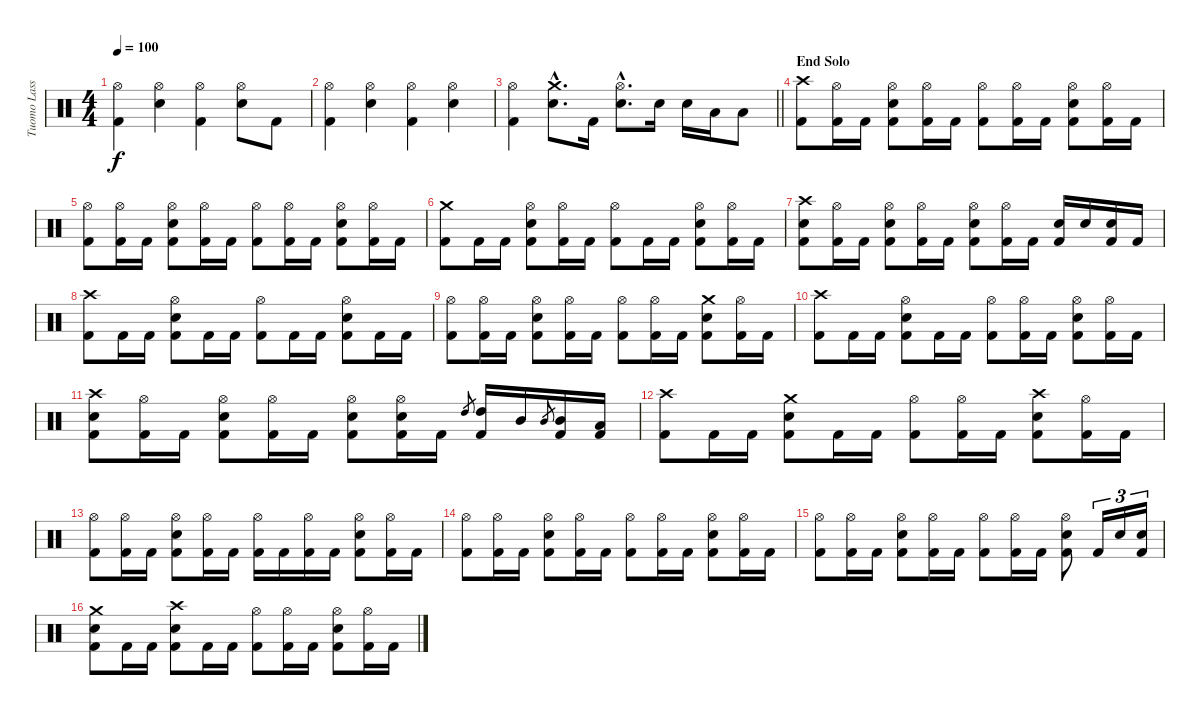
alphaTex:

\track ("Tuomo Lassila" "Tuomo Lass") {instrument percussion}
\staff {score}
\articulation defaults
\ts (4 4)
\tempo 100
\clef neutral
\ks c
("Hi-Hat (open)" "Kick (hit) 2").4{dy f} ("Hi-Hat (open)" "Electric Snare (hit)").4 ("Hi-Hat (open)" "Kick (hit) 2").4 ("Hi-Hat (open)" "Electric Snare (hit)").8 "Kick (hit) 2".8 |
("Hi-Hat (open)" "Kick (hit) 2").4 ("Hi-Hat (open)" "Electric Snare (hit)").4 ("Hi-Hat (open)" "Kick (hit) 2").4 ("Hi-Hat (open)" "Electric Snare (hit)").4 |
\barLineRight lightlight
("Hi-Hat (open)" "Kick (hit) 2").4 ("Crash medium (hit)"{hac} "Electric Snare (hit)"{hac}).8{d} "Kick (hit) 2".16 ("Hi-Hat (open)"{hac} "Electric Snare (hit)"{hac}).8{d} "Electric Snare (hit)".16 "Electric Snare (hit)".16 "Low Tom (hit)".16 "Low Tom (hit)".8 |
\section ("" "End Solo")
("Crash high (hit)" "Kick (hit) 2").8 ("Hi-Hat (open)" "Kick (hit) 2").16 "Kick (hit) 2".16 ("Hi-Hat (open)" "Electric Snare (hit)" "Kick (hit) 2").8 ("Hi-Hat (open)" "Kick (hit) 2").16 "Kick (hit) 2".16 ("Hi-Hat (open)" "Kick (hit) 2").8 ("Hi-Hat (open)" "Kick (hit) 2").16 "Kick (hit) 2".16 ("Hi-Hat (open)" "Electric Snare (hit)" "Kick (hit) 2").8 ("Hi-Hat (open)" "Kick (hit) 2").16 "Kick (hit) 2".16 |
("Hi-Hat (open)" "Kick (hit) 2").8 ("Hi-Hat (open)" "Kick (hit) 2").16 "Kick (hit) 2".16 ("Hi-Hat (open)" "Electric Snare (hit)" "Kick (hit) 2").8 ("Hi-Hat (open)" "Kick (hit) 2").16 "Kick (hit) 2".16 ("Hi-Hat (open)" "Kick (hit) 2").8 ("Hi-Hat (open)" "Kick (hit) 2").16 "Kick (hit) 2".16 ("Hi-Hat (open)" "Electric Snare (hit)" "Kick (hit) 2").8 ("Hi-Hat (open)" "Kick (hit) 2").16 "Kick (hit) 2".16 |
("Crash medium (hit)" "Kick (hit) 2").8 "Kick (hit) 2".16 "Kick (hit) 2".16 ("Hi-Hat (open)" "Electric Snare (hit)" "Kick (hit) 2").8 ("Hi-Hat (open)" "Kick (hit) 2").16 "Kick (hit) 2".16 ("Hi-Hat (open)" "Kick (hit) 2").8 "Kick (hit) 2".16 "Kick (hit) 2".16 ("Hi-Hat (open)" "Electric Snare (hit)" "Kick (hit) 2").8 ("Hi-Hat (open)" "Kick (hit) 2").16 "Kick (hit) 2".16 |
("Crash high (hit)" "Electric Snare (hit)" "Kick (hit) 2").8 ("Hi-Hat (open)" "Kick (hit) 2").16 "Kick (hit) 2".16 ("Hi-Hat (open)" "Electric Snare (hit)" "Kick (hit) 2").8 ("Hi-Hat (open)" "Kick (hit) 2").16 "Kick (hit) 2".16 ("Hi-Hat (open)" "Electric Snare (hit)" "Kick (hit) 2").8 ("Hi-Hat (open)" "Kick (hit) 2").16 "Kick (hit) 2".16 ("Electric Snare (hit)" "Kick (hit) 2").16 "Electric Snare (hit)".16 ("Electric Snare (hit)" "Kick (hit) 2").16 "Kick (hit) 2".16 |
("Crash high (hit)" "Kick (hit) 2").8 "Kick (hit) 2".16 "Kick (hit) 2".16 ("Hi-Hat (open)" "Electric Snare (hit)" "Kick (hit) 2").8 "Kick (hit) 2".16 "Kick (hit) 2".16 ("Hi-Hat (open)" "Kick (hit) 2").8 "Kick (hit) 2".16 "Kick (hit) 2".16 ("Hi-Hat (open)" "Electric Snare (hit)" "Kick (hit) 2").8 "Kick (hit) 2".16 "Kick (hit) 2".16 |
("Hi-Hat (open)" "Kick (hit) 2").8 ("Hi-Hat (open)" "Kick (hit) 2").16 "Kick (hit) 2".16 ("Hi-Hat (open)" "Electric Snare (hit)" "Kick (hit) 2").8 ("Hi-Hat (open)" "Kick (hit) 2").16 "Kick (hit) 2".16 ("Hi-Hat (open)" "Kick (hit) 2").8 ("Hi-Hat (open)" "Kick (hit) 2").16 "Kick (hit) 2".16 ("Crash medium (hit)" "Electric Snare (hit)" "Kick (hit) 2").8 ("Hi-Hat (open)" "Kick (hit) 2").16 "Kick (hit) 2".16 |
("Crash high (hit)" "Kick (hit) 2").8 "Kick (hit) 2".16 "Kick (hit) 2".16 ("Hi-Hat (open)" "Electric Snare (hit)" "Kick (hit) 2").8 "Kick (hit) 2".16 "Kick (hit) 2".16 ("Hi-Hat (open)" "Kick (hit) 2").8 ("Hi-Hat (open)" "Kick (hit) 2").16 "Kick (hit) 2".16 ("Hi-Hat (open)" "Electric Snare (hit)" "Kick (hit) 2").8 ("Hi-Hat (open)" "Kick (hit) 2").16 "Kick (hit) 2".16 |
("Crash high (hit)" "Electric Snare (hit)" "Kick (hit) 2").8 ("Hi-Hat (open)" "Kick (hit) 2").16 "Kick (hit) 2".16 ("Hi-Hat (open)" "Electric Snare (hit)" "Kick (hit) 2").8 ("Hi-Hat (open)" "Kick (hit) 2").16 "Kick (hit) 2".16 ("Hi-Hat (open)" "Electric Snare (hit)" "Kick (hit) 2").8 ("Hi-Hat (open)" "Electric Snare (hit)" "Kick (hit) 2").16 "Kick (hit) 2".16 "High Tom (hit)".8{gr} ("High Tom (hit)" "Kick (hit) 2").16 "Mid Tom (hit)".16 "Mid Tom (hit)".8{gr} ("Mid Tom (hit)" "Kick (hit) 2").16 ("Low Tom (hit)" "Kick (hit) 2").16 |
("Crash high (hit)" "Kick (hit) 2").8 "Kick (hit) 2".16 "Kick (hit) 2".16 ("Crash medium (hit)" "Electric Snare (hit)" "Kick (hit) 2").8 "Kick (hit) 2".16 "Kick (hit) 2".16 ("Hi-Hat (open)" "Kick (hit) 2").8 ("Hi-Hat (open)" "Kick (hit) 2").16 "Kick (hit) 2".16 ("Crash high (hit)" "Electric Snare (hit)" "Kick (hit) 2").8 ("Hi-Hat (open)" "Kick (hit) 2").16 "Kick (hit) 2".16 |
("Hi-Hat (open)" "Kick (hit) 2").8 ("Hi-Hat (open)" "Kick (hit) 2").16 "Kick (hit) 2".16 ("Hi-Hat (open)" "Electric Snare (hit)" "Kick (hit) 2").8 ("Hi-Hat (open)" "Kick (hit) 2").16 "Kick (hit) 2".16 ("Hi-Hat (open)" "Kick (hit) 2").16 "Kick (hit) 2".16 ("Hi-Hat (open)" "Kick (hit) 2").16 "Kick (hit) 2".16 ("Hi-Hat (open)" "Electric Snare (hit)" "Kick (hit) 2").8 ("Hi-Hat (open)" "Kick (hit) 2").16 "Kick (hit) 2".16 |
("Hi-Hat (open)" "Kick (hit) 2").8 ("Hi-Hat (open)" "Kick (hit) 2").16 "Kick (hit) 2".16 ("Hi-Hat (open)" "Electric Snare (hit)" "Kick (hit) 2").8 ("Hi-Hat (open)" "Kick (hit) 2").16 "Kick (hit) 2".16 ("Hi-Hat (open)" "Kick (hit) 2").8 ("Hi-Hat (open)" "Kick (hit) 2").16 "Kick (hit) 2".16 ("Hi-Hat (open)" "Electric Snare (hit)" "Kick (hit) 2").8 ("Hi-Hat (open)" "Kick (hit) 2").16 "Kick (hit) 2".16 |
("Hi-Hat (open)" "Kick (hit) 2").8 ("Hi-Hat (open)" "Kick (hit) 2").16 "Kick (hit) 2".16 ("Hi-Hat (open)" "Electric Snare (hit)" "Kick (hit) 2").8 ("Hi-Hat (open)" "Kick (hit) 2").16 "Kick (hit) 2".16 ("Hi-Hat (open)" "Kick (hit) 2").8 ("Hi-Hat (open)" "Kick (hit) 2").16 "Kick (hit) 2".16 ("Hi-Hat (open)" "Electric Snare (hit)" "Kick (hit) 2").8 "Kick (hit) 2".16{tu (3 2)} "Electric Snare (hit)".16{tu (3 2)} ("Electric Snare (hit)" "Kick (hit) 2").16{tu (3 2)} |
("Crash medium (hit)" "Electric Snare (hit)" "Kick (hit) 2").8 "Kick (hit) 2".16 "Kick (hit) 2".16 ("Crash high (hit)" "Electric Snare (hit)" "Kick (hit) 2").8 "Kick (hit) 2".16 "Kick (hit) 2".16 ("Hi-Hat (open)" "Kick (hit) 2").8 ("Hi-Hat (open)" "Kick (hit) 2").16 "Kick (hit) 2".16 ("Hi-Hat (open)" "Electric Snare (hit)" "Kick (hit) 2").8 ("Hi-Hat (open)" "Kick (hit) 2").16 "Kick (hit) 2".16
